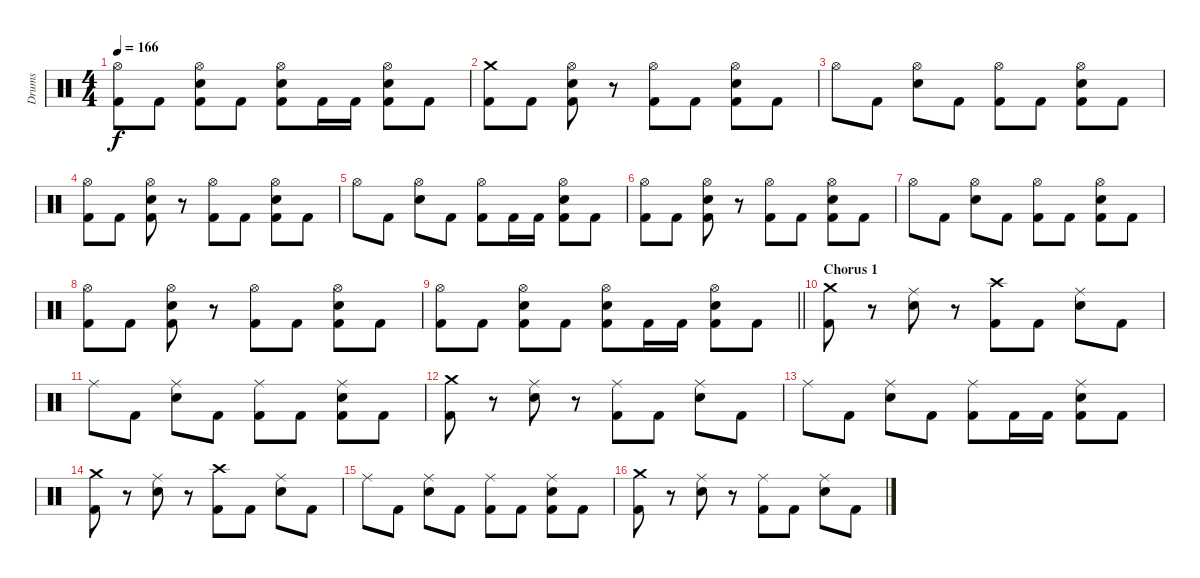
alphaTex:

\track ("Drums" "Drums") {instrument percussion}
\staff {score}
\articulation defaults
\ts (4 4)
\tempo 166
\clef neutral
\ks c
("Hi-Hat (open)" "Kick (hit) 2").8{dy f} "Kick (hit) 2".8 ("Hi-Hat (open)" "Electric Snare (hit)" "Kick (hit) 2").8 "Kick (hit) 2".8 ("Hi-Hat (open)" "Electric Snare (hit)" "Kick (hit) 2").8 "Kick (hit) 2".16 "Kick (hit) 2".16 ("Hi-Hat (open)" "Electric Snare (hit)" "Kick (hit) 2").8 "Kick (hit) 2".8 |
("Crash medium (hit)" "Kick (hit) 2").8 "Kick (hit) 2".8 ("Hi-Hat (open)" "Electric Snare (hit)" "Kick (hit) 2").8 r.8 ("Hi-Hat (open)" "Kick (hit) 2").8 "Kick (hit) 2".8 ("Hi-Hat (open)" "Electric Snare (hit)" "Kick (hit) 2").8 "Kick (hit) 2".8 |
"Hi-Hat (open)".8 "Kick (hit) 2".8 ("Hi-Hat (open)" "Electric Snare (hit)").8 "Kick (hit) 2".8 ("Hi-Hat (open)" "Kick (hit) 2").8 "Kick (hit) 2".8 ("Hi-Hat (open)" "Electric Snare (hit)" "Kick (hit) 2").8 "Kick (hit) 2".8 |
("Hi-Hat (open)" "Kick (hit) 2").8 "Kick (hit) 2".8 ("Hi-Hat (open)" "Electric Snare (hit)" "Kick (hit) 2").8 r.8 ("Hi-Hat (open)" "Kick (hit) 2").8 "Kick (hit) 2".8 ("Hi-Hat (open)" "Electric Snare (hit)" "Kick (hit) 2").8 "Kick (hit) 2".8 |
"Hi-Hat (open)".8 "Kick (hit) 2".8 ("Hi-Hat (open)" "Electric Snare (hit)").8 "Kick (hit) 2".8 ("Hi-Hat (open)" "Kick (hit) 2").8 "Kick (hit) 2".16 "Kick (hit) 2".16 ("Hi-Hat (open)" "Electric Snare (hit)" "Kick (hit) 2").8 "Kick (hit) 2".8 |
("Hi-Hat (open)" "Kick (hit) 2").8 "Kick (hit) 2".8 ("Hi-Hat (open)" "Electric Snare (hit)" "Kick (hit) 2").8 r.8 ("Hi-Hat (open)" "Kick (hit) 2").8 "Kick (hit) 2".8 ("Hi-Hat (open)" "Electric Snare (hit)" "Kick (hit) 2").8 "Kick (hit) 2".8 |
"Hi-Hat (open)".8 "Kick (hit) 2".8 ("Hi-Hat (open)" "Electric Snare (hit)").8 "Kick (hit) 2".8 ("Hi-Hat (open)" "Kick (hit) 2").8 "Kick (hit) 2".8 ("Hi-Hat (open)" "Electric Snare (hit)" "Kick (hit) 2").8 "Kick (hit) 2".8 |
("Hi-Hat (open)" "Kick (hit) 2").8 "Kick (hit) 2".8 ("Hi-Hat (open)" "Electric Snare (hit)" "Kick (hit) 2").8 r.8 ("Hi-Hat (open)" "Kick (hit) 2").8 "Kick (hit) 2".8 ("Hi-Hat (open)" "Electric Snare (hit)" "Kick (hit) 2").8 "Kick (hit) 2".8 |
\barLineRight lightlight
("Hi-Hat (open)" "Kick (hit) 2").8 "Kick (hit) 2".8 ("Hi-Hat (open)" "Electric Snare (hit)" "Kick (hit) 2").8 "Kick (hit) 2".8 ("Hi-Hat (open)" "Electric Snare (hit)" "Kick (hit) 2").8 "Kick (hit) 2".16 "Kick (hit) 2".16 ("Hi-Hat (open)" "Electric Snare (hit)" "Kick (hit) 2").8 "Kick (hit) 2".8 |
\section ("" "Chorus 1")
("Crash medium (hit)" "Kick (hit) 2").8 r.8 ("Ride (middle)" "Electric Snare (hit)").8 r.8 ("Crash high (hit)" "Kick (hit) 2").8 "Kick (hit) 2".8 ("Ride (middle)" "Electric Snare (hit)").8 "Kick (hit) 2".8 |
"Ride (middle)".8 "Kick (hit) 2".8 ("Ride (middle)" "Electric Snare (hit)").8 "Kick (hit) 2".8 ("Ride (middle)" "Kick (hit) 2").8 "Kick (hit) 2".8 ("Ride (middle)" "Electric Snare (hit)" "Kick (hit) 2").8 "Kick (hit) 2".8 |
("Crash medium (hit)" "Kick (hit) 2").8 r.8 ("Ride (middle)" "Electric Snare (hit)").8 r.8 ("Ride (middle)" "Kick (hit) 2").8 "Kick (hit) 2".8 ("Ride (middle)" "Electric Snare (hit)").8 "Kick (hit) 2".8 |
"Ride (middle)".8 "Kick (hit) 2".8 ("Ride (middle)" "Electric Snare (hit)").8 "Kick (hit) 2".8 ("Ride (middle)" "Kick (hit) 2").8 "Kick (hit) 2".16 "Kick (hit) 2".16 ("Ride (middle)" "Electric Snare (hit)" "Kick (hit) 2").8 "Kick (hit) 2".8 |
("Crash medium (hit)" "Kick (hit) 2").8 r.8 ("Ride (middle)" "Electric Snare (hit)").8 r.8 ("Crash high (hit)" "Kick (hit) 2").8 "Kick (hit) 2".8 ("Ride (middle)" "Electric Snare (hit)").8 "Kick (hit) 2".8 |
"Ride (middle)".8 "Kick (hit) 2".8 ("Ride (middle)" "Electric Snare (hit)").8 "Kick (hit) 2".8 ("Ride (middle)" "Kick (hit) 2").8 "Kick (hit) 2".8 ("Ride (middle)" "Electric Snare (hit)" "Kick (hit) 2").8 "Kick (hit) 2".8 |
("Crash medium (hit)" "Kick (hit) 2").8 r.8 ("Ride (middle)" "Electric Snare (hit)").8 r.8 ("Ride (middle)" "Kick (hit) 2").8 "Kick (hit) 2".8 ("Ride (middle)" "Electric Snare (hit)").8 "Kick (hit) 2".8
